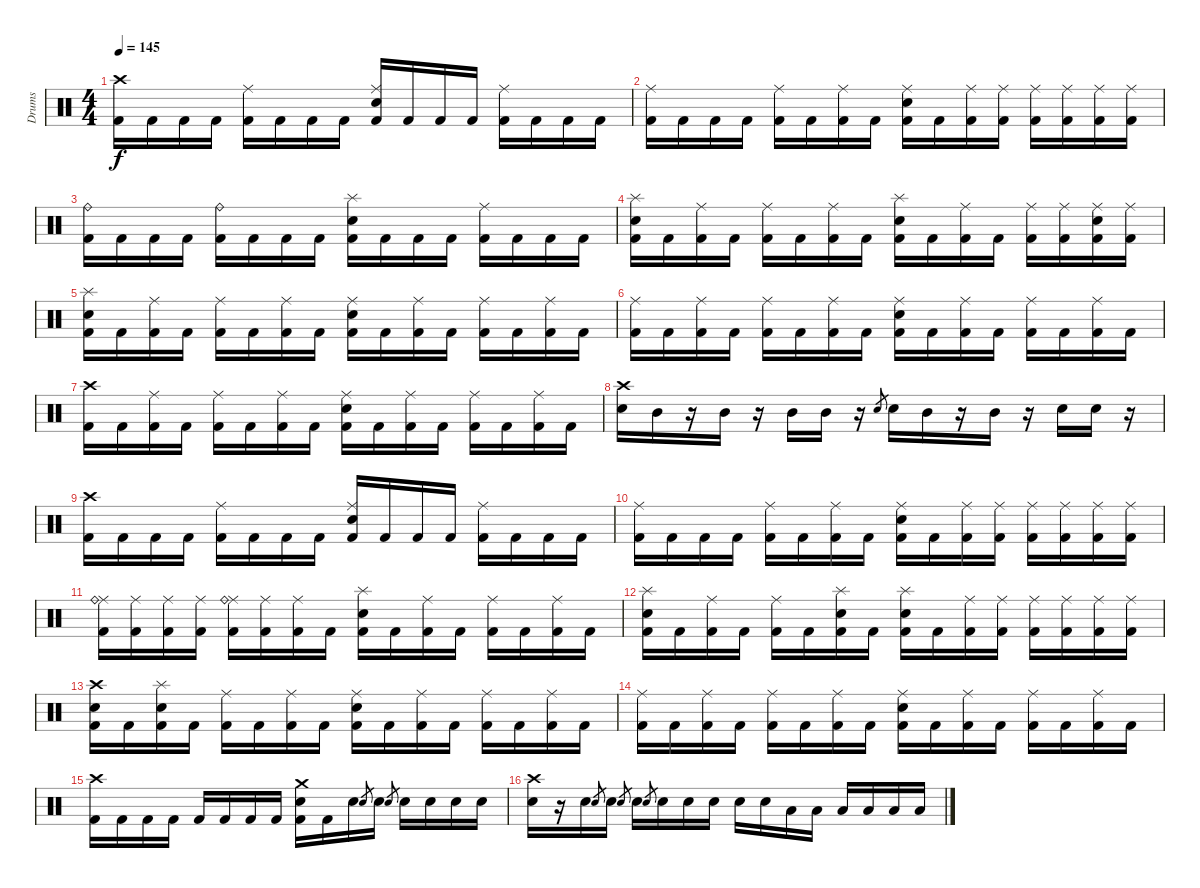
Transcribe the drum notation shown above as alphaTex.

\track ("Drums" "Drums") {instrument percussion}
\staff {score}
\articulation defaults
\ts (4 4)
\tempo 145
\clef neutral
\ks c
("Crash high (hit)" "Kick (hit) 2").16{dy f} "Kick (hit) 2".16 "Kick (hit) 2".16 "Kick (hit) 2".16 ("Ride (middle)" "Kick (hit) 2").16 "Kick (hit) 2".16 "Kick (hit) 2".16 "Kick (hit) 2".16 ("Ride (middle)" "Electric Snare (hit)" "Kick (hit) 2").16 "Kick (hit) 2".16 "Kick (hit) 2".16 "Kick (hit) 2".16 ("Ride (middle)" "Kick (hit) 2").16 "Kick (hit) 2".16 "Kick (hit) 2".16 "Kick (hit) 2".16 |
("Ride (middle)" "Kick (hit) 2").16 "Kick (hit) 2".16 "Kick (hit) 2".16 "Kick (hit) 2".16 ("Ride (middle)" "Kick (hit) 2").16 "Kick (hit) 2".16 ("Ride (middle)" "Kick (hit) 2").16 "Kick (hit) 2".16 ("Ride (middle)" "Electric Snare (hit)" "Kick (hit) 2").16 "Kick (hit) 2".16 ("Ride (middle)" "Kick (hit) 2").16 ("Ride (middle)" "Kick (hit) 2").16 ("Ride (middle)" "Kick (hit) 2").16 ("Ride (middle)" "Kick (hit) 2").16 ("Ride (middle)" "Kick (hit) 2").16 ("Ride (middle)" "Kick (hit) 2").16 |
("Ride (bell)" "Kick (hit) 2").16 "Kick (hit) 2".16 "Kick (hit) 2".16 "Kick (hit) 2".16 ("Ride (bell)" "Kick (hit) 2").16 "Kick (hit) 2".16 "Kick (hit) 2".16 "Kick (hit) 2".16 ("Splash (hit)" "Electric Snare (hit)" "Kick (hit) 2").16 "Kick (hit) 2".16 "Kick (hit) 2".16 "Kick (hit) 2".16 ("Ride (middle)" "Kick (hit) 2").16 "Kick (hit) 2".16 "Kick (hit) 2".16 "Kick (hit) 2".16 |
("Splash (hit)" "Electric Snare (hit)" "Kick (hit) 2").16 "Kick (hit) 2".16 ("Ride (middle)" "Kick (hit) 2").16 "Kick (hit) 2".16 ("Ride (middle)" "Kick (hit) 2").16 "Kick (hit) 2".16 ("Ride (middle)" "Kick (hit) 2").16 "Kick (hit) 2".16 ("Splash (hit)" "Electric Snare (hit)" "Kick (hit) 2").16 "Kick (hit) 2".16 ("Ride (middle)" "Kick (hit) 2").16 "Kick (hit) 2".16 ("Ride (middle)" "Kick (hit) 2").16 ("Ride (middle)" "Kick (hit) 2").16 ("Ride (middle)" "Electric Snare (hit)" "Kick (hit) 2").16 ("Ride (middle)" "Kick (hit) 2").16 |
("Splash (hit)" "Electric Snare (hit)" "Kick (hit) 2").16 "Kick (hit) 2".16 ("Ride (middle)" "Kick (hit) 2").16 "Kick (hit) 2".16 ("Ride (middle)" "Kick (hit) 2").16 "Kick (hit) 2".16 ("Ride (middle)" "Kick (hit) 2").16 "Kick (hit) 2".16 ("Ride (middle)" "Electric Snare (hit)" "Kick (hit) 2").16 "Kick (hit) 2".16 ("Ride (middle)" "Kick (hit) 2").16 "Kick (hit) 2".16 ("Ride (middle)" "Kick (hit) 2").16 "Kick (hit) 2".16 ("Ride (middle)" "Kick (hit) 2").16 "Kick (hit) 2".16 |
("Ride (middle)" "Kick (hit) 2").16 "Kick (hit) 2".16 ("Ride (middle)" "Kick (hit) 2").16 "Kick (hit) 2".16 ("Ride (middle)" "Kick (hit) 2").16 "Kick (hit) 2".16 ("Ride (middle)" "Kick (hit) 2").16 "Kick (hit) 2".16 ("Ride (middle)" "Electric Snare (hit)" "Kick (hit) 2").16 "Kick (hit) 2".16 ("Ride (middle)" "Kick (hit) 2").16 "Kick (hit) 2".16 ("Ride (middle)" "Kick (hit) 2").16 "Kick (hit) 2".16 ("Ride (middle)" "Kick (hit) 2").16 "Kick (hit) 2".16 |
("Crash high (hit)" "Kick (hit) 2").16 "Kick (hit) 2".16 ("Ride (middle)" "Kick (hit) 2").16 "Kick (hit) 2".16 ("Ride (middle)" "Kick (hit) 2").16 "Kick (hit) 2".16 ("Ride (middle)" "Kick (hit) 2").16 "Kick (hit) 2".16 ("Ride (middle)" "Electric Snare (hit)" "Kick (hit) 2").16 "Kick (hit) 2".16 ("Ride (middle)" "Kick (hit) 2").16 "Kick (hit) 2".16 ("Ride (middle)" "Kick (hit) 2").16 "Kick (hit) 2".16 ("Ride (middle)" "Kick (hit) 2").16 "Kick (hit) 2".16 |
("Crash high (hit)" "Electric Snare (hit)").16 "Mid Tom (hit)".16 r.16 "Mid Tom (hit)".16 r.16 "Mid Tom (hit)".16 "Mid Tom (hit)".16 r.16 "Electric Snare (hit)".8{gr} "Electric Snare (hit)".16 "Mid Tom (hit)".16 r.16 "Mid Tom (hit)".16 r.16 "Electric Snare (hit)".16 "Electric Snare (hit)".16 r.16 |
("Crash high (hit)" "Kick (hit) 2").16 "Kick (hit) 2".16 "Kick (hit) 2".16 "Kick (hit) 2".16 ("Ride (middle)" "Kick (hit) 2").16 "Kick (hit) 2".16 "Kick (hit) 2".16 "Kick (hit) 2".16 ("Ride (middle)" "Electric Snare (hit)" "Kick (hit) 2").16 "Kick (hit) 2".16 "Kick (hit) 2".16 "Kick (hit) 2".16 ("Ride (middle)" "Kick (hit) 2").16 "Kick (hit) 2".16 "Kick (hit) 2".16 "Kick (hit) 2".16 |
("Ride (middle)" "Kick (hit) 2").16 "Kick (hit) 2".16 "Kick (hit) 2".16 "Kick (hit) 2".16 ("Ride (middle)" "Kick (hit) 2").16 "Kick (hit) 2".16 ("Ride (middle)" "Kick (hit) 2").16 "Kick (hit) 2".16 ("Ride (middle)" "Electric Snare (hit)" "Kick (hit) 2").16 "Kick (hit) 2".16 ("Ride (middle)" "Kick (hit) 2").16 ("Ride (middle)" "Kick (hit) 2").16 ("Ride (middle)" "Kick (hit) 2").16 ("Ride (middle)" "Kick (hit) 2").16 ("Ride (middle)" "Kick (hit) 2").16 ("Ride (middle)" "Kick (hit) 2").16 |
("Ride (middle)" "Ride (bell)" "Kick (hit) 2").16 ("Ride (middle)" "Kick (hit) 2").16 ("Ride (middle)" "Kick (hit) 2").16 ("Ride (middle)" "Kick (hit) 2").16 ("Ride (middle)" "Ride (bell)" "Kick (hit) 2").16 ("Ride (middle)" "Kick (hit) 2").16 ("Ride (middle)" "Kick (hit) 2").16 "Kick (hit) 2".16 ("Splash (hit)" "Electric Snare (hit)" "Kick (hit) 2").16 "Kick (hit) 2".16 ("Ride (middle)" "Kick (hit) 2").16 "Kick (hit) 2".16 ("Ride (middle)" "Kick (hit) 2").16 "Kick (hit) 2".16 ("Ride (middle)" "Kick (hit) 2").16 "Kick (hit) 2".16 |
("Splash (hit)" "Electric Snare (hit)" "Kick (hit) 2").16 "Kick (hit) 2".16 ("Ride (middle)" "Kick (hit) 2").16 "Kick (hit) 2".16 ("Ride (middle)" "Kick (hit) 2").16 "Kick (hit) 2".16 ("Splash (hit)" "Electric Snare (hit)" "Kick (hit) 2").16 "Kick (hit) 2".16 ("Splash (hit)" "Electric Snare (hit)" "Kick (hit) 2").16 "Kick (hit) 2".16 ("Ride (middle)" "Kick (hit) 2").16 ("Ride (middle)" "Kick (hit) 2").16 ("Ride (middle)" "Kick (hit) 2").16 ("Ride (middle)" "Kick (hit) 2").16 ("Ride (middle)" "Kick (hit) 2").16 ("Ride (middle)" "Kick (hit) 2").16 |
("Crash high (hit)" "Electric Snare (hit)" "Kick (hit) 2").16 "Kick (hit) 2".16 ("Splash (hit)" "Electric Snare (hit)" "Kick (hit) 2").16 "Kick (hit) 2".16 ("Ride (middle)" "Kick (hit) 2").16 "Kick (hit) 2".16 ("Ride (middle)" "Kick (hit) 2").16 "Kick (hit) 2".16 ("Ride (middle)" "Electric Snare (hit)" "Kick (hit) 2").16 "Kick (hit) 2".16 ("Ride (middle)" "Kick (hit) 2").16 "Kick (hit) 2".16 ("Ride (middle)" "Kick (hit) 2").16 "Kick (hit) 2".16 ("Ride (middle)" "Kick (hit) 2").16 "Kick (hit) 2".16 |
("Ride (middle)" "Kick (hit) 2").16 "Kick (hit) 2".16 ("Ride (middle)" "Kick (hit) 2").16 "Kick (hit) 2".16 ("Ride (middle)" "Kick (hit) 2").16 "Kick (hit) 2".16 ("Ride (middle)" "Kick (hit) 2").16 "Kick (hit) 2".16 ("Ride (middle)" "Electric Snare (hit)" "Kick (hit) 2").16 "Kick (hit) 2".16 ("Ride (middle)" "Kick (hit) 2").16 "Kick (hit) 2".16 ("Ride (middle)" "Kick (hit) 2").16 "Kick (hit) 2".16 ("Ride (middle)" "Kick (hit) 2").16 "Kick (hit) 2".16 |
("Crash high (hit)" "Kick (hit) 2").16 "Kick (hit) 2".16 "Kick (hit) 2".16 "Kick (hit) 2".16 "Kick (hit) 2".16 "Kick (hit) 2".16 "Kick (hit) 2".16 "Kick (hit) 2".16 ("Crash medium (hit)" "Electric Snare (hit)" "Kick (hit) 2").16 "Kick (hit) 2".16 "Electric Snare (hit)".16 "Electric Snare (hit)".8{gr} "Electric Snare (hit)".16 "Electric Snare (hit)".8{gr} "Electric Snare (hit)".16 "Electric Snare (hit)".16 "Electric Snare (hit)".16 "Electric Snare (hit)".16 |
("Crash high (hit)" "Electric Snare (hit)").16 r.16 "Electric Snare (hit)".16 "Electric Snare (hit)".8{gr} "Electric Snare (hit)".16 "Electric Snare (hit)".8{gr} "Electric Snare (hit)".16 "Electric Snare (hit)".8{gr} "Electric Snare (hit)".16 "Electric Snare (hit)".16 "Electric Snare (hit)".16 "Electric Snare (hit)".16 "Electric Snare (hit)".16 "Low Tom (hit)".16 "Low Tom (hit)".16 "Low Tom (hit)".16 "Low Tom (hit)".16 "Low Tom (hit)".16 "Low Tom (hit)".16
